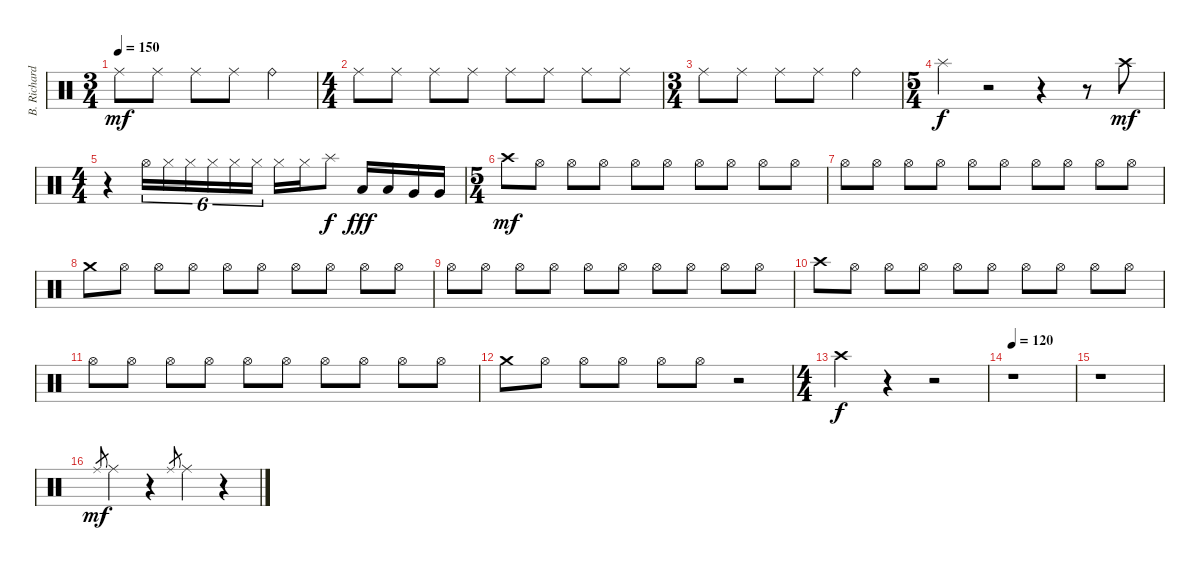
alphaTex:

\track ("B. Richardson Drums" "B. Richard") {instrument percussion}
\staff {score}
\articulation defaults
\ts (3 4)
\tempo 150
\clef neutral
\ks c "Ride (middle)".8{dy mf} "Ride (middle)".8 "Ride (middle)".8 "Ride (middle)".8 "Ride (bell)".4
|
\ts (4 4)
"Ride (middle)".8 "Ride (middle)".8 "Ride (middle)".8 "Ride (middle)".8 "Ride (middle)".8 "Ride (middle)".8 "Ride (middle)".8 "Ride (middle)".8 |
\ts (3 4)
"Ride (middle)".8 "Ride (middle)".8 "Ride (middle)".8 "Ride (middle)".8 "Ride (bell)".4 |
\ts (5 4)
"Splash (hit)".4{dy f} r.2 r.4 r.8 "Crash high (hit)".8{dy mf} |
\ts (4 4)
r.4 "Hi-Hat (open)".16{tu (6 4)} "Hi-Hat (closed)".16{tu (6 4)} "Hi-Hat (closed)".16{tu (6 4)} "Hi-Hat (closed)".16{tu (6 4)} "Hi-Hat (closed)".16{tu (6 4)} "Hi-Hat (closed)".16{tu (6 4)} "Hi-Hat (closed)".16 "Hi-Hat (closed)".16 "Splash (hit)".8{dy f} "Low Tom (hit)".16{dy fff} "Low Tom (hit)".16 "Very Low Tom (hit)".16 "Very Low Tom (hit)".16 |
\ts (5 4)
"Crash high (hit)".8{dy mf} "Hi-Hat (open)".8 "Hi-Hat (open)".8 "Hi-Hat (open)".8 "Hi-Hat (open)".8 "Hi-Hat (open)".8 "Hi-Hat (open)".8 "Hi-Hat (open)".8 "Hi-Hat (open)".8 "Hi-Hat (open)".8 |
"Hi-Hat (open)".8 "Hi-Hat (open)".8 "Hi-Hat (open)".8 "Hi-Hat (open)".8 "Hi-Hat (open)".8 "Hi-Hat (open)".8 "Hi-Hat (open)".8 "Hi-Hat (open)".8 "Hi-Hat (open)".8 "Hi-Hat (open)".8 |
"Crash medium (hit)".8 "Hi-Hat (open)".8 "Hi-Hat (open)".8 "Hi-Hat (open)".8 "Hi-Hat (open)".8 "Hi-Hat (open)".8 "Hi-Hat (open)".8 "Hi-Hat (open)".8 "Hi-Hat (open)".8 "Hi-Hat (open)".8 |
"Hi-Hat (open)".8 "Hi-Hat (open)".8 "Hi-Hat (open)".8 "Hi-Hat (open)".8 "Hi-Hat (open)".8 "Hi-Hat (open)".8 "Hi-Hat (open)".8 "Hi-Hat (open)".8 "Hi-Hat (open)".8 "Hi-Hat (open)".8 |
"Crash high (hit)".8 "Hi-Hat (open)".8 "Hi-Hat (open)".8 "Hi-Hat (open)".8 "Hi-Hat (open)".8 "Hi-Hat (open)".8 "Hi-Hat (open)".8 "Hi-Hat (open)".8 "Hi-Hat (open)".8 "Hi-Hat (open)".8 |
"Hi-Hat (open)".8 "Hi-Hat (open)".8 "Hi-Hat (open)".8 "Hi-Hat (open)".8 "Hi-Hat (open)".8 "Hi-Hat (open)".8 "Hi-Hat (open)".8 "Hi-Hat (open)".8 "Hi-Hat (open)".8 "Hi-Hat (open)".8 |
"Crash medium (hit)".8 "Hi-Hat (open)".8 "Hi-Hat (open)".8 "Hi-Hat (open)".8 "Hi-Hat (open)".8 "Hi-Hat (open)".8 r.2 |
\ts (4 4)
"Crash high (hit)".4{dy f} r.4 r.2 |
\tempo 120
r.1 |
r.1 |
"Ride (middle)".8{gr dy mf} "Ride (middle)".4 r.4 "Ride (middle)".8{gr} "Ride (middle)".4 r.4
